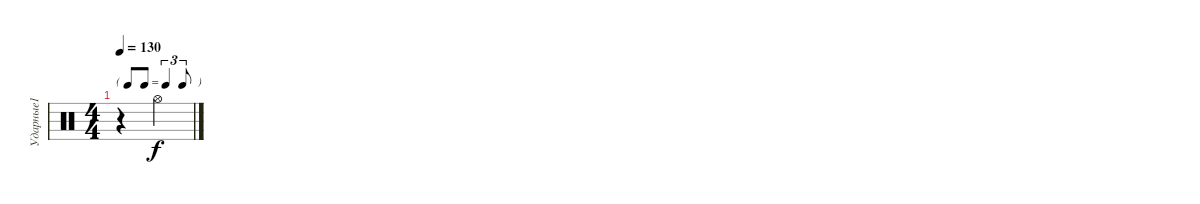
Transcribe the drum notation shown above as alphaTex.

\track ("Ударные1" "Ударные1") {instrument percussion}
\staff {score}
\articulation defaults
\ts (4 4)
\tf triplet8th
\tempo 130
\clef neutral
\ks c
r.4{dy f} "Hi-Hat (open)".4
